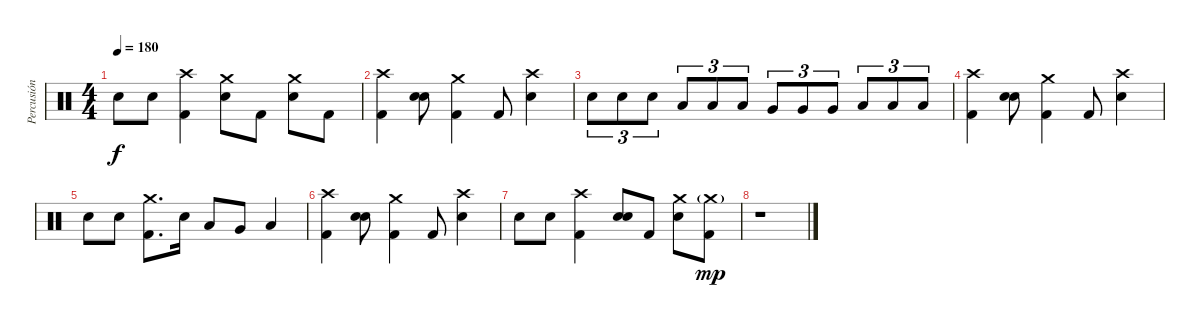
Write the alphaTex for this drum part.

\track ("Percusión" "Percusión") {instrument percussion}
\staff {score}
\articulation defaults
\ts (4 4)
\tempo 180
\clef neutral
\ks c "Electric Snare (hit)".8{dy f} "Electric Snare (hit)".8
("Crash high (hit)" "Kick (hit) 2").4 ("Crash medium (hit)" "Electric Snare (hit)").8 "Kick (hit) 2".8 ("Crash medium (hit)" "Electric Snare (hit)").8 "Kick (hit) 2".8 |
("Crash high (hit)" "Kick (hit) 2").4 ("Electric Snare (hit)" "Electric Snare (hit)").8{bd 240} ("Crash medium (hit)" "Kick (hit) 2").4 "Kick (hit) 2".8 ("Crash high (hit)" "Electric Snare (hit)").4 |
"Electric Snare (hit)".8{tu (3 2)} "Electric Snare (hit)".8{tu (3 2)} "Electric Snare (hit)".8{tu (3 2)} "Low Tom (hit)".8{tu (3 2)} "Low Tom (hit)".8{tu (3 2)} "Low Tom (hit)".8{tu (3 2)} "Very Low Tom (hit)".8{tu (3 2)} "Very Low Tom (hit)".8{tu (3 2)} "Very Low Tom (hit)".8{tu (3 2)} "Low Floor Tom (hit)".8{tu (3 2)} "Low Floor Tom (hit)".8{tu (3 2)} "Low Floor Tom (hit)".8{tu (3 2)} |
("Crash high (hit)" "Kick (hit) 2").4 ("Electric Snare (hit)" "Electric Snare (hit)").8{bd 240} ("Crash medium (hit)" "Kick (hit) 2").4 "Kick (hit) 2".8 ("Crash high (hit)" "Electric Snare (hit)").4 |
"Electric Snare (hit)".8 "Electric Snare (hit)".8 ("Crash medium (hit)" "Kick (hit) 2").8{d} "Electric Snare (hit)".16 "Low Tom (hit)".8 "Very Low Tom (hit)".8 "Low Floor Tom (hit)".4 |
("Crash high (hit)" "Kick (hit) 2").4 ("Electric Snare (hit)" "Electric Snare (hit)").8{bd 240} ("Crash medium (hit)" "Kick (hit) 2").4 "Kick (hit) 2".8 ("Crash high (hit)" "Electric Snare (hit)").4 |
"Electric Snare (hit)".8 "Electric Snare (hit)".8 ("Crash high (hit)" "Kick (hit) 2").4 ("Electric Snare (hit)" "Electric Snare (hit)").8{bd 240} "Kick (hit) 2".8 ("Crash medium (hit)" "Electric Snare (hit)").8 ("Crash medium (hit)"{g} "Kick (hit) 2").8{dy mp} |
r.1
